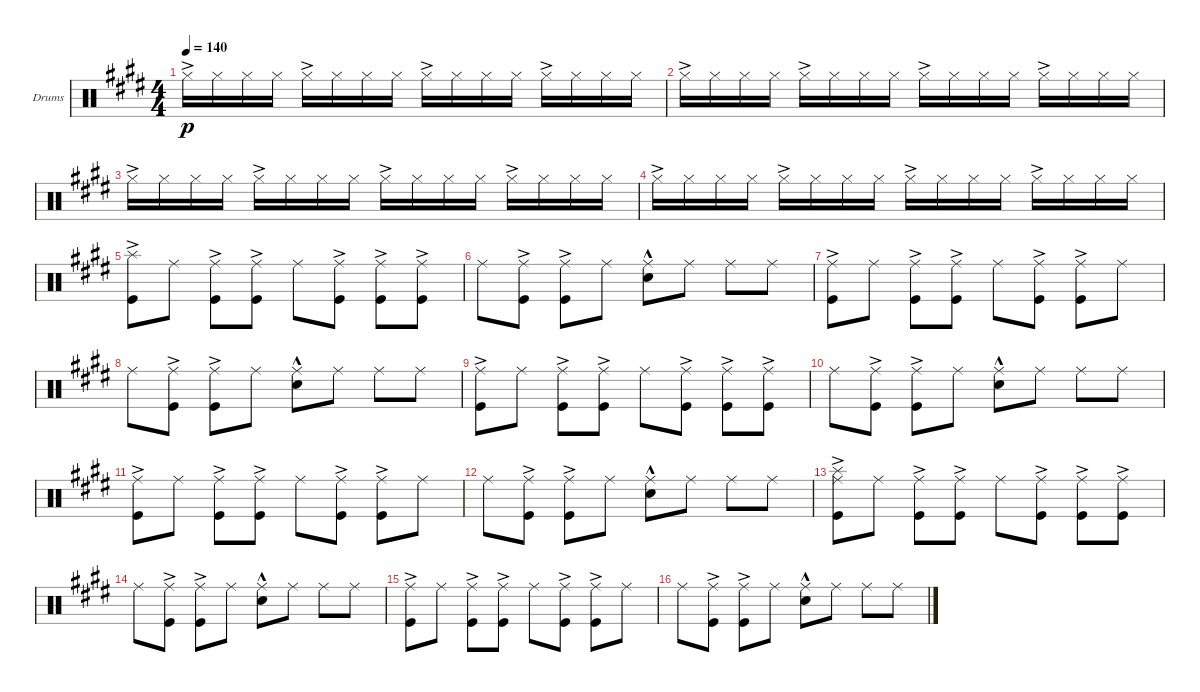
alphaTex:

\defaultSystemsLayout 4
\bracketExtendMode groupsimilarinstruments
\firstSystemTrackNameOrientation horizontal
\otherSystemsTrackNameOrientation horizontal
\track ("Drumkit" "Drums") {instrument percussion}
\staff {score}
\articulation defaults
\ts (4 4)
\tempo 140
\clef neutral
\scale
0.333333
\ks e "Hi-Hat (closed)"{ac}.16{dy p} "Hi-Hat (closed)".16 "Hi-Hat (closed)".16 "Hi-Hat (closed)".16 "Hi-Hat (closed)"{ac}.16 "Hi-Hat (closed)".16 "Hi-Hat (closed)".16 "Hi-Hat (closed)".16 "Hi-Hat (closed)"{ac}.16 "Hi-Hat (closed)".16 "Hi-Hat (closed)".16 "Hi-Hat (closed)".16 "Hi-Hat (closed)"{ac}.16 "Hi-Hat (closed)".16 "Hi-Hat (closed)".16 "Hi-Hat (closed)".16
|
\scale
0.333333 "Hi-Hat (closed)"{ac}.16 "Hi-Hat (closed)".16 "Hi-Hat (closed)".16 "Hi-Hat (closed)".16 "Hi-Hat (closed)"{ac}.16 "Hi-Hat (closed)".16 "Hi-Hat (closed)".16 "Hi-Hat (closed)".16 "Hi-Hat (closed)"{ac}.16 "Hi-Hat (closed)".16 "Hi-Hat (closed)".16 "Hi-Hat (closed)".16 "Hi-Hat (closed)"{ac}.16 "Hi-Hat (closed)".16 "Hi-Hat (closed)".16 "Hi-Hat (closed)".16 |
\scale
0.333333 "Hi-Hat (closed)"{ac}.16 "Hi-Hat (closed)".16 "Hi-Hat (closed)".16 "Hi-Hat (closed)".16 "Hi-Hat (closed)"{ac}.16 "Hi-Hat (closed)".16 "Hi-Hat (closed)".16 "Hi-Hat (closed)".16 "Hi-Hat (closed)"{ac}.16 "Hi-Hat (closed)".16 "Hi-Hat (closed)".16 "Hi-Hat (closed)".16 "Hi-Hat (closed)"{ac}.16 "Hi-Hat (closed)".16 "Hi-Hat (closed)".16 "Hi-Hat (closed)".16 |
\scale
0.333333 "Hi-Hat (closed)"{ac}.16 "Hi-Hat (closed)".16 "Hi-Hat (closed)".16 "Hi-Hat (closed)".16 "Hi-Hat (closed)"{ac}.16 "Hi-Hat (closed)".16 "Hi-Hat (closed)".16 "Hi-Hat (closed)".16 "Hi-Hat (closed)"{ac}.16 "Hi-Hat (closed)".16 "Hi-Hat (closed)".16 "Hi-Hat (closed)".16 "Hi-Hat (closed)"{ac}.16 "Hi-Hat (closed)".16 "Hi-Hat (closed)".16 "Hi-Hat (closed)".16 |
("Splash (hit)" "Kick (hit)"{ac}).8 "Ride (middle)".8 ("Kick (hit)"{ac} "Ride (middle)").8 ("Kick (hit)"{ac} "Ride (middle)").8 "Ride (middle)".8 ("Kick (hit)"{ac} "Ride (middle)").8 ("Kick (hit)"{ac} "Ride (middle)").8 ("Kick (hit)"{ac} "Ride (middle)").8 |
"Ride (middle)".8 ("Kick (hit)"{ac} "Ride (middle)").8 ("Kick (hit)"{ac} "Ride (middle)").8 "Ride (middle)".8 ("Snare (hit) 2"{hac} "Ride (middle)").8 "Ride (middle)".8 "Ride (middle)".8 "Ride (middle)".8 |
("Kick (hit)"{ac} "Ride (middle)").8 "Ride (middle)".8 ("Kick (hit)"{ac} "Ride (middle)").8 ("Kick (hit)"{ac} "Ride (middle)").8 "Ride (middle)".8 ("Kick (hit)"{ac} "Ride (middle)").8 ("Kick (hit)"{ac} "Ride (middle)").8 "Ride (middle)".8 |
"Ride (middle)".8 ("Kick (hit)"{ac} "Ride (middle)").8 ("Kick (hit)"{ac} "Ride (middle)").8 "Ride (middle)".8 ("Snare (hit) 2"{hac} "Ride (middle)").8 "Ride (middle)".8 "Ride (middle)".8 "Ride (middle)".8 |
("Kick (hit)"{ac} "Ride (middle)").8 "Ride (middle)".8 ("Kick (hit)"{ac} "Ride (middle)").8 ("Kick (hit)"{ac} "Ride (middle)").8 "Ride (middle)".8 ("Kick (hit)"{ac} "Ride (middle)").8 ("Kick (hit)"{ac} "Ride (middle)").8 ("Kick (hit)"{ac} "Ride (middle)").8 |
"Ride (middle)".8 ("Kick (hit)"{ac} "Ride (middle)").8 ("Kick (hit)"{ac} "Ride (middle)").8 "Ride (middle)".8 ("Snare (hit) 2"{hac} "Ride (middle)").8 "Ride (middle)".8 "Ride (middle)".8 "Ride (middle)".8 |
("Kick (hit)"{ac} "Ride (middle)").8 "Ride (middle)".8 ("Kick (hit)"{ac} "Ride (middle)").8 ("Kick (hit)"{ac} "Ride (middle)").8 "Ride (middle)".8 ("Kick (hit)"{ac} "Ride (middle)").8 ("Kick (hit)"{ac} "Ride (middle)").8 "Ride (middle)".8 |
"Ride (middle)".8 ("Kick (hit)"{ac} "Ride (middle)").8 ("Kick (hit)"{ac} "Ride (middle)").8 "Ride (middle)".8 ("Snare (hit) 2"{hac} "Ride (middle)").8 "Ride (middle)".8 "Ride (middle)".8 "Ride (middle)".8 |
("Splash (hit)" "Kick (hit)"{ac} "Ride (middle)").8 "Ride (middle)".8 ("Kick (hit)"{ac} "Ride (middle)").8 ("Kick (hit)"{ac} "Ride (middle)").8 "Ride (middle)".8 ("Kick (hit)"{ac} "Ride (middle)").8 ("Kick (hit)"{ac} "Ride (middle)").8 ("Kick (hit)"{ac} "Ride (middle)").8 |
"Ride (middle)".8 ("Kick (hit)"{ac} "Ride (middle)").8 ("Kick (hit)"{ac} "Ride (middle)").8 "Ride (middle)".8 ("Snare (hit) 2"{hac} "Ride (middle)").8 "Ride (middle)".8 "Ride (middle)".8 "Ride (middle)".8 |
("Kick (hit)"{ac} "Ride (middle)").8 "Ride (middle)".8 ("Kick (hit)"{ac} "Ride (middle)").8 ("Kick (hit)"{ac} "Ride (middle)").8 "Ride (middle)".8 ("Kick (hit)"{ac} "Ride (middle)").8 ("Kick (hit)"{ac} "Ride (middle)").8 "Ride (middle)".8 |
"Ride (middle)".8 ("Kick (hit)"{ac} "Ride (middle)").8 ("Kick (hit)"{ac} "Ride (middle)").8 "Ride (middle)".8 ("Snare (hit) 2"{hac} "Ride (middle)").8 "Ride (middle)".8 "Ride (middle)".8 "Ride (middle)".8
